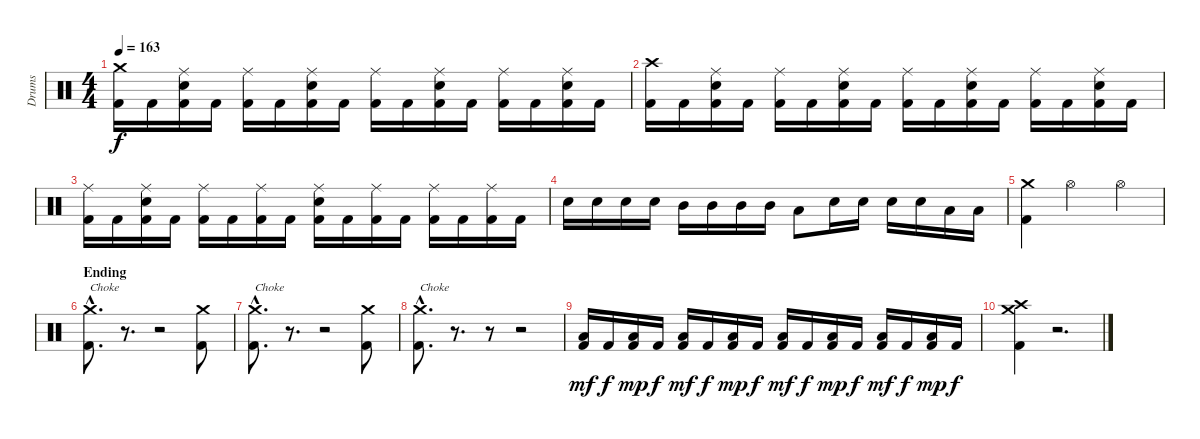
\track ("Drums" "Drums") {instrument percussion}
\staff {score}
\articulation defaults
\ts (4 4)
\tempo 163
\clef neutral
\ks c
("Crash medium (hit)" "Kick (hit) 2").16{dy f} "Kick (hit) 2".16 ("Ride (middle)" "Snare (hit) 2" "Kick (hit) 2").16 "Kick (hit) 2".16 ("Ride (middle)" "Kick (hit) 2").16 "Kick (hit) 2".16 ("Ride (middle)" "Snare (hit) 2" "Kick (hit) 2").16 "Kick (hit) 2".16 ("Ride (middle)" "Kick (hit) 2").16 "Kick (hit) 2".16 ("Ride (middle)" "Snare (hit) 2" "Kick (hit) 2").16 "Kick (hit) 2".16 ("Ride (middle)" "Kick (hit) 2").16 "Kick (hit) 2".16 ("Ride (middle)" "Snare (hit) 2" "Kick (hit) 2").16 "Kick (hit) 2".16 |
("Crash high (hit)" "Kick (hit) 2").16 "Kick (hit) 2".16 ("Ride (middle)" "Snare (hit) 2" "Kick (hit) 2").16 "Kick (hit) 2".16 ("Ride (middle)" "Kick (hit) 2").16 "Kick (hit) 2".16 ("Ride (middle)" "Snare (hit) 2" "Kick (hit) 2").16 "Kick (hit) 2".16 ("Ride (middle)" "Kick (hit) 2").16 "Kick (hit) 2".16 ("Ride (middle)" "Snare (hit) 2" "Kick (hit) 2").16 "Kick (hit) 2".16 ("Ride (middle)" "Kick (hit) 2").16 "Kick (hit) 2".16 ("Ride (middle)" "Snare (hit) 2" "Kick (hit) 2").16 "Kick (hit) 2".16 |
("Ride (middle)" "Kick (hit) 2").16 "Kick (hit) 2".16 ("Ride (middle)" "Snare (hit) 2" "Kick (hit) 2").16 "Kick (hit) 2".16 ("Ride (middle)" "Kick (hit) 2").16 "Kick (hit) 2".16 ("Ride (middle)" "Kick (hit) 2").16 "Kick (hit) 2".16 ("Ride (middle)" "Snare (hit) 2" "Kick (hit) 2").16 "Kick (hit) 2".16 ("Ride (middle)" "Kick (hit) 2").16 "Kick (hit) 2".16 ("Ride (middle)" "Kick (hit) 2").16 "Kick (hit) 2".16 ("Ride (middle)" "Kick (hit) 2").16 "Kick (hit) 2".16 |
"Snare (hit) 2".16 "Snare (hit) 2".16 "Snare (hit) 2".16 "Snare (hit) 2".16 "Mid Tom (hit)".16 "Mid Tom (hit)".16 "Mid Tom (hit)".16 "Mid Tom (hit)".16 "Low Tom (hit)".8 "Snare (hit) 2".16 "Snare (hit) 2".16 "Snare (hit) 2".16 "Snare (hit) 2".16 "Low Tom (hit)".16 "Low Tom (hit)".16 |
("Crash medium (hit)" "Kick (hit) 2").4 "Hi-Hat (open)".2 "Hi-Hat (open)".4 |
\section ("" "Ending")
("Crash medium (hit)"{hac} "Kick (hit) 2"{hac}).8{d txt "Choke"} r.8{d volume 0} r.2 ("Crash medium (hit)" "Kick (hit) 2").8{volume 14} |
("Crash medium (hit)"{hac} "Kick (hit) 2"{hac}).8{d txt "Choke"} r.8{d volume 0} r.2 ("Crash medium (hit)" "Kick (hit) 2").8{volume 14} |
("Crash medium (hit)"{hac} "Kick (hit) 2"{hac}).8{d txt "Choke"} r.8{d volume 0} r.8 r.2 |
("Low Floor Tom (hit)" "Kick (hit) 2").16{dy mf volume 14} "Kick (hit) 2".16{dy f} ("Low Floor Tom (hit)" "Kick (hit) 2").16{dy mp} "Kick (hit) 2".16{dy f} ("Low Floor Tom (hit)" "Kick (hit) 2").16{dy mf} "Kick (hit) 2".16{dy f} ("Low Floor Tom (hit)" "Kick (hit) 2").16{dy mp} "Kick (hit) 2".16{dy f} ("Low Floor Tom (hit)" "Kick (hit) 2").16{dy mf} "Kick (hit) 2".16{dy f} ("Low Floor Tom (hit)" "Kick (hit) 2").16{dy mp} "Kick (hit) 2".16{dy f} ("Low Floor Tom (hit)" "Kick (hit) 2").16{dy mf} "Kick (hit) 2".16{dy f} ("Low Floor Tom (hit)" "Kick (hit) 2").16{dy mp} "Kick (hit) 2".16{dy f} |
("Crash medium (hit)" "Crash high (hit)" "Kick (hit) 2").4 r.2{d}
